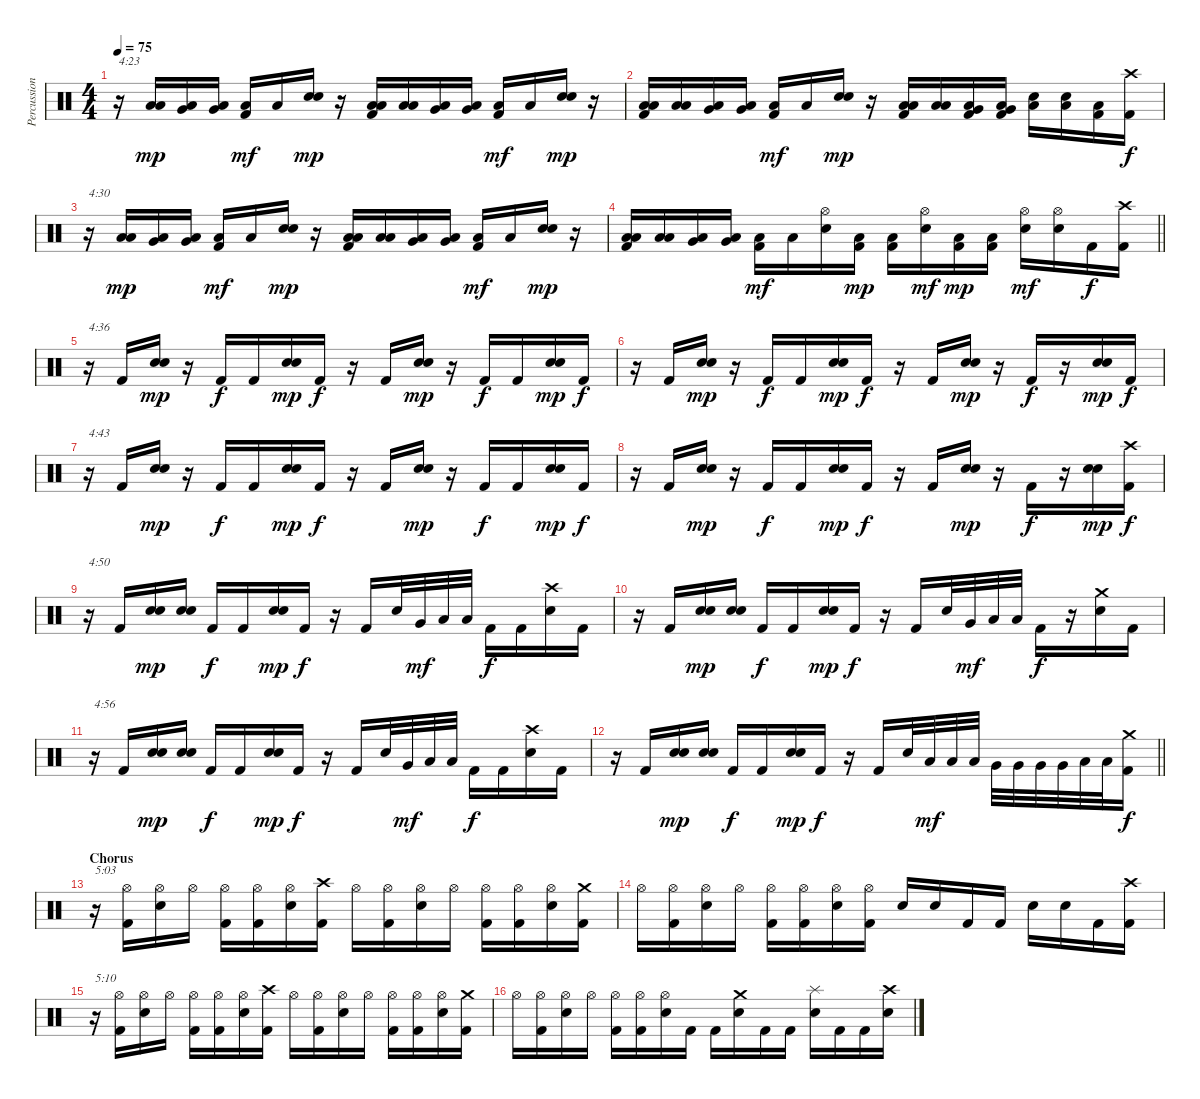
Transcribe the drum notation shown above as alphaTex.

\track ("Percussion" "Percussion") {instrument percussion}
\staff {score}
\articulation defaults
\ts (4 4)
\tempo 75
\clef neutral
\ks c
r.16{txt "4:23" dy f} ("Low Tom (hit)" "Low Floor Tom (hit)").16{dy mp} ("Very Low Tom (hit)" "Low Floor Tom (hit)").16 ("Very Low Tom (hit)" "Low Floor Tom (hit)").16 ("Low Floor Tom (hit)" "Kick (hit) 2").16{dy mf} "Low Floor Tom (hit)".16 ("Snare (hit) 2" "Electric Snare (hit)").16{dy mp} r.16 ("Low Tom (hit)" "Low Floor Tom (hit)" "Kick (hit) 2").16 ("Low Tom (hit)" "Low Floor Tom (hit)").16 ("Very Low Tom (hit)" "Low Floor Tom (hit)").16 ("Very Low Tom (hit)" "Low Floor Tom (hit)").16 ("Low Floor Tom (hit)" "Kick (hit) 2").16{dy mf} "Low Floor Tom (hit)".16 ("Snare (hit) 2" "Electric Snare (hit)").16{dy mp} r.16 |
("Low Tom (hit)" "Low Floor Tom (hit)" "Kick (hit) 2").16 ("Low Tom (hit)" "Low Floor Tom (hit)").16 ("Very Low Tom (hit)" "Low Floor Tom (hit)").16 ("Very Low Tom (hit)" "Low Floor Tom (hit)").16 ("Low Floor Tom (hit)" "Kick (hit) 2").16{dy mf} "Low Floor Tom (hit)".16 ("Snare (hit) 2" "Electric Snare (hit)").16{dy mp} r.16 ("Low Tom (hit)" "Low Floor Tom (hit)" "Kick (hit) 2").16 ("Low Tom (hit)" "Low Floor Tom (hit)").16 ("Very Low Tom (hit)" "Low Floor Tom (hit)" "Kick (hit) 2").16 ("Very Low Tom (hit)" "Low Floor Tom (hit)" "Kick (hit) 2").16 ("Electric Snare (hit)" "Low Floor Tom (hit)").16 ("Electric Snare (hit)" "Low Floor Tom (hit)").16 ("Low Floor Tom (hit)" "Kick (hit) 2").16 ("Crash high (hit)" "Kick (hit) 2").16{dy f} |
r.16{txt "4:30"} ("Low Tom (hit)" "Low Floor Tom (hit)").16{dy mp} ("Very Low Tom (hit)" "Low Floor Tom (hit)").16 ("Very Low Tom (hit)" "Low Floor Tom (hit)").16 ("Low Floor Tom (hit)" "Kick (hit) 2").16{dy mf} "Low Floor Tom (hit)".16 ("Snare (hit) 2" "Electric Snare (hit)").16{dy mp} r.16 ("Low Tom (hit)" "Low Floor Tom (hit)" "Kick (hit) 2").16 ("Low Tom (hit)" "Low Floor Tom (hit)").16 ("Very Low Tom (hit)" "Low Floor Tom (hit)").16 ("Very Low Tom (hit)" "Low Floor Tom (hit)").16 ("Low Floor Tom (hit)" "Kick (hit) 2").16{dy mf} "Low Floor Tom (hit)".16 ("Snare (hit) 2" "Electric Snare (hit)").16{dy mp} r.16 |
\barLineRight lightlight
("Low Tom (hit)" "Low Floor Tom (hit)" "Kick (hit) 2").16 ("Low Tom (hit)" "Low Floor Tom (hit)").16 ("Very Low Tom (hit)" "Low Floor Tom (hit)").16 ("Very Low Tom (hit)" "Low Floor Tom (hit)").16 ("Low Floor Tom (hit)" "Kick (hit) 2").16{dy mf} "Low Floor Tom (hit)".16 ("Hi-Hat (open)" "Electric Snare (hit)").16 ("Low Floor Tom (hit)" "Kick (hit) 2").16{dy mp} ("Low Floor Tom (hit)" "Kick (hit) 2").16 ("Hi-Hat (open)" "Electric Snare (hit)").16{dy mf} ("Low Floor Tom (hit)" "Kick (hit) 2").16{dy mp} ("Low Floor Tom (hit)" "Kick (hit) 2").16 ("Hi-Hat (open)" "Electric Snare (hit)").16{dy mf} ("Hi-Hat (open)" "Electric Snare (hit)").16 "Kick (hit) 2".16{dy f} ("Crash high (hit)" "Kick (hit) 2").16 |
\section ("" "")
r.16{txt "4:36"} "Kick (hit) 2".16 ("Snare (hit) 2" "Electric Snare (hit)").16{dy mp} r.16 "Kick (hit) 2".16{dy f} "Kick (hit) 2".16 ("Snare (hit) 2" "Electric Snare (hit)").16{dy mp} "Kick (hit) 2".16{dy f} r.16 "Kick (hit) 2".16 ("Snare (hit) 2" "Electric Snare (hit)").16{dy mp} r.16 "Kick (hit) 2".16{dy f} "Kick (hit) 2".16 ("Snare (hit) 2" "Electric Snare (hit)").16{dy mp} "Kick (hit) 2".16{dy f} |
r.16 "Kick (hit) 2".16 ("Snare (hit) 2" "Electric Snare (hit)").16{dy mp} r.16 "Kick (hit) 2".16{dy f} "Kick (hit) 2".16 ("Snare (hit) 2" "Electric Snare (hit)").16{dy mp} "Kick (hit) 2".16{dy f} r.16 "Kick (hit) 2".16 ("Snare (hit) 2" "Electric Snare (hit)").16{dy mp} r.16 "Kick (hit) 2".16{dy f} r.16 ("Snare (hit) 2" "Electric Snare (hit)").16{dy mp} "Kick (hit) 2".16{dy f} |
r.16{txt "4:43"} "Kick (hit) 2".16 ("Snare (hit) 2" "Electric Snare (hit)").16{dy mp} r.16 "Kick (hit) 2".16{dy f} "Kick (hit) 2".16 ("Snare (hit) 2" "Electric Snare (hit)").16{dy mp} "Kick (hit) 2".16{dy f} r.16 "Kick (hit) 2".16 ("Snare (hit) 2" "Electric Snare (hit)").16{dy mp} r.16 "Kick (hit) 2".16{dy f} "Kick (hit) 2".16 ("Snare (hit) 2" "Electric Snare (hit)").16{dy mp} "Kick (hit) 2".16{dy f} |
r.16 "Kick (hit) 2".16 ("Snare (hit) 2" "Electric Snare (hit)").16{dy mp} r.16 "Kick (hit) 2".16{dy f} "Kick (hit) 2".16 ("Snare (hit) 2" "Electric Snare (hit)").16{dy mp} "Kick (hit) 2".16{dy f} r.16 "Kick (hit) 2".16 ("Snare (hit) 2" "Electric Snare (hit)").16{dy mp} r.16 "Kick (hit) 2".16{dy f} r.16 ("Snare (hit) 2" "Electric Snare (hit)").16{dy mp} ("Crash high (hit)" "Kick (hit) 2").16{dy f} |
r.16{txt "4:50"} "Kick (hit) 2".16 ("Snare (hit) 2" "Electric Snare (hit)").16{dy mp} ("Snare (hit) 2" "Electric Snare (hit)").16 "Kick (hit) 2".16{dy f} "Kick (hit) 2".16 ("Snare (hit) 2" "Electric Snare (hit)").16{dy mp} "Kick (hit) 2".16{dy f} r.16 "Kick (hit) 2".16 "Electric Snare (hit)".32 "Very Low Tom (hit)".32{dy mf} "Low Floor Tom (hit)".32 "Low Floor Tom (hit)".32 "Kick (hit) 2".16{dy f} "Kick (hit) 2".16 ("Crash high (hit)" "Electric Snare (hit)").16 "Kick (hit) 2".16 |
r.16 "Kick (hit) 2".16 ("Snare (hit) 2" "Electric Snare (hit)").16{dy mp} ("Snare (hit) 2" "Electric Snare (hit)").16 "Kick (hit) 2".16{dy f} "Kick (hit) 2".16 ("Snare (hit) 2" "Electric Snare (hit)").16{dy mp} "Kick (hit) 2".16{dy f} r.16 "Kick (hit) 2".16 "Electric Snare (hit)".32 "Very Low Tom (hit)".32{dy mf} "Low Floor Tom (hit)".32 "Low Floor Tom (hit)".32 "Kick (hit) 2".16{dy f} r.16 ("Crash medium (hit)" "Electric Snare (hit)").16 "Kick (hit) 2".16 |
r.16{txt "4:56"} "Kick (hit) 2".16 ("Snare (hit) 2" "Electric Snare (hit)").16{dy mp} ("Snare (hit) 2" "Electric Snare (hit)").16 "Kick (hit) 2".16{dy f} "Kick (hit) 2".16 ("Snare (hit) 2" "Electric Snare (hit)").16{dy mp} "Kick (hit) 2".16{dy f} r.16 "Kick (hit) 2".16 "Electric Snare (hit)".32 "Very Low Tom (hit)".32{dy mf} "Low Floor Tom (hit)".32 "Low Floor Tom (hit)".32 "Kick (hit) 2".16{dy f} "Kick (hit) 2".16 ("Crash high (hit)" "Electric Snare (hit)").16 "Kick (hit) 2".16 |
\barLineRight lightlight
r.16 "Kick (hit) 2".16 ("Snare (hit) 2" "Electric Snare (hit)").16{dy mp} ("Snare (hit) 2" "Electric Snare (hit)").16 "Kick (hit) 2".16{dy f} "Kick (hit) 2".16 ("Snare (hit) 2" "Electric Snare (hit)").16{dy mp} "Kick (hit) 2".16{dy f} r.16 "Kick (hit) 2".16 "Electric Snare (hit)".32 "Low Tom (hit)".32{dy mf} "Low Tom (hit)".32 "Low Tom (hit)".32 "Very Low Tom (hit)".32 "Very Low Tom (hit)".32 "Very Low Tom (hit)".32 "Very Low Tom (hit)".32 "Low Floor Tom (hit)".32 "Low Floor Tom (hit)".32 ("Crash medium (hit)" "Kick (hit) 2").16{dy f} |
\section ("" "Chorus")
r.16{txt "5:03"} ("Hi-Hat (open)" "Kick (hit) 2").16 ("Hi-Hat (open)" "Electric Snare (hit)").16 "Hi-Hat (open)".16 ("Hi-Hat (open)" "Kick (hit) 2").16 ("Hi-Hat (open)" "Kick (hit) 2").16 ("Hi-Hat (open)" "Electric Snare (hit)").16 ("Crash high (hit)" "Kick (hit) 2").16 "Hi-Hat (open)".16 ("Hi-Hat (open)" "Kick (hit) 2").16 ("Hi-Hat (open)" "Electric Snare (hit)").16 "Hi-Hat (open)".16 ("Hi-Hat (open)" "Kick (hit) 2").16 ("Hi-Hat (open)" "Kick (hit) 2").16 ("Hi-Hat (open)" "Electric Snare (hit)").16 ("Crash medium (hit)" "Kick (hit) 2").16 |
"Hi-Hat (open)".16 ("Hi-Hat (open)" "Kick (hit) 2").16 ("Hi-Hat (open)" "Electric Snare (hit)").16 "Hi-Hat (open)".16 ("Hi-Hat (open)" "Kick (hit) 2").16 ("Hi-Hat (open)" "Kick (hit) 2").16 ("Hi-Hat (open)" "Electric Snare (hit)").16 ("Hi-Hat (open)" "Kick (hit) 2").16 "Electric Snare (hit)".16 "Electric Snare (hit)".16 "Kick (hit) 2".16 "Kick (hit) 2".16 "Electric Snare (hit)".16 "Electric Snare (hit)".16 "Kick (hit) 2".16 ("Crash high (hit)" "Kick (hit) 2").16 |
r.16{txt "5:10"} ("Hi-Hat (open)" "Kick (hit) 2").16 ("Hi-Hat (open)" "Electric Snare (hit)").16 "Hi-Hat (open)".16 ("Hi-Hat (open)" "Kick (hit) 2").16 ("Hi-Hat (open)" "Kick (hit) 2").16 ("Hi-Hat (open)" "Electric Snare (hit)").16 ("Crash high (hit)" "Kick (hit) 2").16 "Hi-Hat (open)".16 ("Hi-Hat (open)" "Kick (hit) 2").16 ("Hi-Hat (open)" "Electric Snare (hit)").16 "Hi-Hat (open)".16 ("Hi-Hat (open)" "Kick (hit) 2").16 ("Hi-Hat (open)" "Kick (hit) 2").16 ("Hi-Hat (open)" "Electric Snare (hit)").16 ("Crash medium (hit)" "Kick (hit) 2").16 |
"Hi-Hat (open)".16 ("Hi-Hat (open)" "Kick (hit) 2").16 ("Hi-Hat (open)" "Electric Snare (hit)").16 "Hi-Hat (open)".16 ("Hi-Hat (open)" "Kick (hit) 2").16 ("Hi-Hat (open)" "Kick (hit) 2").16 ("Hi-Hat (open)" "Electric Snare (hit)").16 "Kick (hit) 2".16 "Kick (hit) 2".16 ("Crash medium (hit)" "Electric Snare (hit)").16 "Kick (hit) 2".16 "Kick (hit) 2".16 ("Splash (hit)" "Electric Snare (hit)").16 "Kick (hit) 2".16 "Kick (hit) 2".16 ("Crash high (hit)" "Electric Snare (hit)").16
